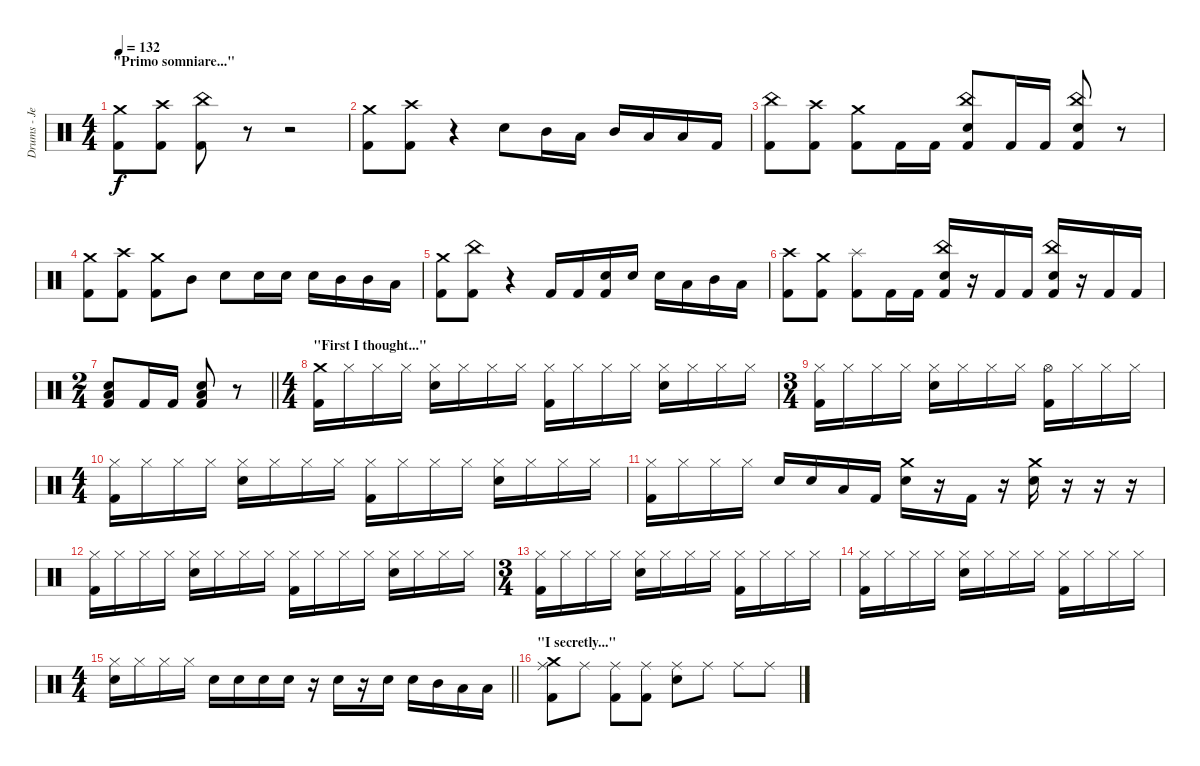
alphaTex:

\track ("Drums - Jeroen" "Drums - Je") {instrument percussion}
\staff {score}
\articulation defaults
\ts (4 4)
\section ("" "\"Primo somniare...\"")
\tempo 132
\clef neutral
\ks c
("Crash medium (hit)" "Kick (hit) 2").8{dy f} ("Crash high (hit)" "Kick (hit) 2").8 ("China (hit)" "Kick (hit) 2").8 r.8 r.2 |
("Crash medium (hit)" "Kick (hit) 2").8 ("Crash high (hit)" "Kick (hit) 2").8 r.4 "Electric Snare (hit)".8 "Mid Tom (hit)".16 "Low Tom (hit)".16 "Mid Tom (hit)".16 "Low Floor Tom (hit)".16 "Low Floor Tom (hit)".16 "Kick (hit) 2".16 |
("China (hit)" "Kick (hit) 2").8 ("Crash high (hit)" "Kick (hit) 2").8 ("Crash medium (hit)" "Kick (hit) 2").8 "Kick (hit) 2".16 "Kick (hit) 2".16 ("China (hit)" "Electric Snare (hit)" "Kick (hit) 2").8 "Kick (hit) 2".16 "Kick (hit) 2".16 ("China (hit)" "Electric Snare (hit)" "Kick (hit) 2").8 r.8 |
("Crash medium (hit)" "Kick (hit) 2").8 ("Crash high (hit)" "Kick (hit) 2").8 ("Crash medium (hit)" "Kick (hit) 2").8 "Mid Tom (hit)".8 "Electric Snare (hit)".8 "Electric Snare (hit)".16 "Electric Snare (hit)".16 "Electric Snare (hit)".16 "Mid Tom (hit)".16 "Mid Tom (hit)".16 "Low Tom (hit)".16 |
("Crash medium (hit)" "Kick (hit) 2").8 ("China (hit)" "Kick (hit) 2").8 r.4 "Kick (hit) 2".16 "Kick (hit) 2".16 ("Electric Snare (hit)" "Kick (hit) 2").16 "Electric Snare (hit)".16 "Electric Snare (hit)".16 "Low Tom (hit)".16 "Mid Tom (hit)".16 "Low Floor Tom (hit)".16 |
("Crash high (hit)" "Kick (hit) 2").8 ("Crash medium (hit)" "Kick (hit) 2").8 ("Splash (hit)" "Kick (hit) 2").8 "Kick (hit) 2".16 "Kick (hit) 2".16 ("China (hit)" "Electric Snare (hit)" "Kick (hit) 2").16 r.16 "Kick (hit) 2".16 "Kick (hit) 2".16 ("China (hit)" "Electric Snare (hit)" "Kick (hit) 2").16 r.16 "Kick (hit) 2".16 "Kick (hit) 2".16 |
\ts (2 4)
\barLineRight lightlight
("Low Floor Tom (hit)" "Electric Snare (hit)" "Kick (hit) 2").8 "Kick (hit) 2".16 "Kick (hit) 2".16 ("Low Floor Tom (hit)" "Electric Snare (hit)" "Kick (hit) 2").8 r.8 |
\ts (4 4)
\section ("" "\"First I thought...\"")
("Crash medium (hit)" "Kick (hit) 2").16 "Hi-Hat (closed)".16 "Hi-Hat (closed)".16 "Hi-Hat (closed)".16 ("Hi-Hat (closed)" "Electric Snare (hit)").16 "Hi-Hat (closed)".16 "Hi-Hat (closed)".16 "Hi-Hat (closed)".16 ("Hi-Hat (closed)" "Kick (hit) 2").16 "Hi-Hat (closed)".16 "Hi-Hat (closed)".16 "Hi-Hat (closed)".16 ("Hi-Hat (closed)" "Electric Snare (hit)").16 "Hi-Hat (closed)".16 "Hi-Hat (closed)".16 "Hi-Hat (closed)".16 |
\ts (3 4)
("Hi-Hat (closed)" "Kick (hit) 2").16 "Hi-Hat (closed)".16 "Hi-Hat (closed)".16 "Hi-Hat (closed)".16 ("Hi-Hat (closed)" "Electric Snare (hit)").16 "Hi-Hat (closed)".16 "Hi-Hat (closed)".16 "Hi-Hat (closed)".16 ("Hi-Hat (open)" "Kick (hit) 2").16 "Hi-Hat (closed)".16 "Hi-Hat (closed)".16 "Hi-Hat (closed)".16 |
\ts (4 4)
("Hi-Hat (closed)" "Kick (hit) 2").16 "Hi-Hat (closed)".16 "Hi-Hat (closed)".16 "Hi-Hat (closed)".16 ("Hi-Hat (closed)" "Electric Snare (hit)").16 "Hi-Hat (closed)".16 "Hi-Hat (closed)".16 "Hi-Hat (closed)".16 ("Hi-Hat (closed)" "Kick (hit) 2").16 "Hi-Hat (closed)".16 "Hi-Hat (closed)".16 "Hi-Hat (closed)".16 ("Hi-Hat (closed)" "Electric Snare (hit)").16 "Hi-Hat (closed)".16 "Hi-Hat (closed)".16 "Hi-Hat (closed)".16 |
("Hi-Hat (closed)" "Kick (hit) 2").16 "Hi-Hat (closed)".16 "Hi-Hat (closed)".16 "Hi-Hat (closed)".16 "Electric Snare (hit)".16 "Electric Snare (hit)".16 "Low Tom (hit)".16 "Kick (hit) 2".16 ("Crash medium (hit)" "Electric Snare (hit)").16 r.16 "Kick (hit) 2".16 r.16 ("Crash medium (hit)" "Electric Snare (hit)").16 r.16 r.16 r.16 |
("Hi-Hat (closed)" "Kick (hit) 2").16 "Hi-Hat (closed)".16 "Hi-Hat (closed)".16 "Hi-Hat (closed)".16 ("Hi-Hat (closed)" "Electric Snare (hit)").16 "Hi-Hat (closed)".16 "Hi-Hat (closed)".16 "Hi-Hat (closed)".16 ("Hi-Hat (closed)" "Kick (hit) 2").16 "Hi-Hat (closed)".16 "Hi-Hat (closed)".16 "Hi-Hat (closed)".16 ("Hi-Hat (closed)" "Electric Snare (hit)").16 "Hi-Hat (closed)".16 "Hi-Hat (closed)".16 "Hi-Hat (closed)".16 |
\ts (3 4)
("Hi-Hat (closed)" "Kick (hit) 2").16 "Hi-Hat (closed)".16 "Hi-Hat (closed)".16 "Hi-Hat (closed)".16 ("Hi-Hat (closed)" "Electric Snare (hit)").16 "Hi-Hat (closed)".16 "Hi-Hat (closed)".16 "Hi-Hat (closed)".16 ("Hi-Hat (closed)" "Kick (hit) 2").16 "Hi-Hat (closed)".16 "Hi-Hat (closed)".16 "Hi-Hat (closed)".16 |
("Hi-Hat (closed)" "Kick (hit) 2").16 "Hi-Hat (closed)".16 "Hi-Hat (closed)".16 "Hi-Hat (closed)".16 ("Hi-Hat (closed)" "Electric Snare (hit)").16 "Hi-Hat (closed)".16 "Hi-Hat (closed)".16 "Hi-Hat (closed)".16 ("Hi-Hat (closed)" "Kick (hit) 2").16 "Hi-Hat (closed)".16 "Hi-Hat (closed)".16 "Hi-Hat (closed)".16 |
\ts (4 4)
\barLineRight lightlight
("Hi-Hat (closed)" "Electric Snare (hit)").16 "Hi-Hat (closed)".16 "Hi-Hat (closed)".16 "Hi-Hat (closed)".16 "Electric Snare (hit)".16 "Electric Snare (hit)".16 "Electric Snare (hit)".16 "Electric Snare (hit)".16 r.16 "Electric Snare (hit)".16 r.16 "Electric Snare (hit)".16 "Electric Snare (hit)".16 "Mid Tom (hit)".16 "Low Tom (hit)".16 "Low Floor Tom (hit)".16 |
\section ("" "\"I secretly...\"")
("Crash medium (hit)" "Ride (middle)" "Kick (hit) 2").8 "Ride (middle)".8 ("Ride (middle)" "Kick (hit) 2").8 ("Ride (middle)" "Kick (hit) 2").8 ("Ride (middle)" "Electric Snare (hit)").8 "Ride (middle)".8 "Ride (middle)".8 "Ride (middle)".8
